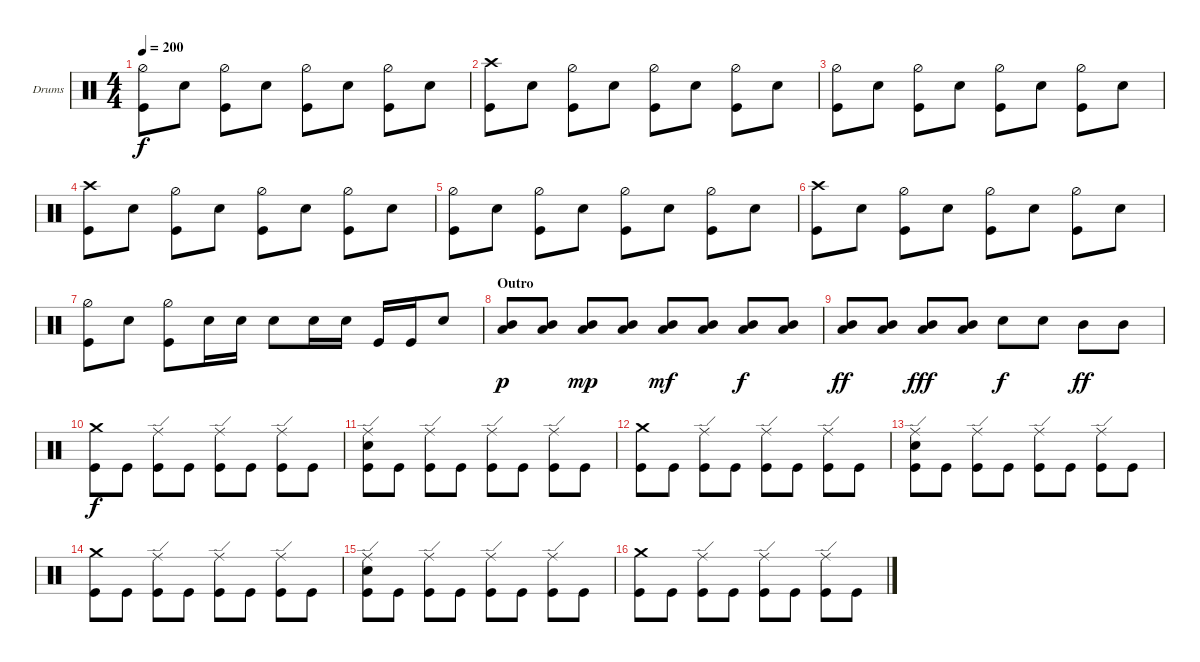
\defaultSystemsLayout 4
\bracketExtendMode groupsimilarinstruments
\firstSystemTrackNameOrientation horizontal
\otherSystemsTrackNameOrientation horizontal
\track ("Drumkit" "Drums") {instrument percussion}
\staff {score}
\articulation defaults
\ts (4 4)
\tempo 200
\clef neutral
\ks c
("Kick (hit)" "Hi-Hat (half)").8{dy f} "Snare (hit) 2".8 ("Kick (hit)" "Hi-Hat (half)").8 "Snare (hit) 2".8 ("Kick (hit)" "Hi-Hat (half)").8 "Snare (hit) 2".8 ("Kick (hit)" "Hi-Hat (half)").8 "Snare (hit) 2".8 |
("Kick (hit)" "Crash high (hit)").8 "Snare (hit) 2".8 ("Kick (hit)" "Hi-Hat (half)").8 "Snare (hit) 2".8 ("Kick (hit)" "Hi-Hat (half)").8 "Snare (hit) 2".8 ("Kick (hit)" "Hi-Hat (half)").8 "Snare (hit) 2".8 |
("Kick (hit)" "Hi-Hat (half)").8 "Snare (hit) 2".8 ("Kick (hit)" "Hi-Hat (half)").8 "Snare (hit) 2".8 ("Kick (hit)" "Hi-Hat (half)").8 "Snare (hit) 2".8 ("Kick (hit)" "Hi-Hat (half)").8 "Snare (hit) 2".8 |
("Kick (hit)" "Crash high (hit)").8 "Snare (hit) 2".8 ("Kick (hit)" "Hi-Hat (half)").8 "Snare (hit) 2".8 ("Kick (hit)" "Hi-Hat (half)").8 "Snare (hit) 2".8 ("Kick (hit)" "Hi-Hat (half)").8 "Snare (hit) 2".8 |
("Kick (hit)" "Hi-Hat (half)").8 "Snare (hit) 2".8 ("Kick (hit)" "Hi-Hat (half)").8 "Snare (hit) 2".8 ("Kick (hit)" "Hi-Hat (half)").8 "Snare (hit) 2".8 ("Kick (hit)" "Hi-Hat (half)").8 "Snare (hit) 2".8 |
("Kick (hit)" "Crash high (hit)").8 "Snare (hit) 2".8 ("Kick (hit)" "Hi-Hat (half)").8 "Snare (hit) 2".8 ("Kick (hit)" "Hi-Hat (half)").8 "Snare (hit) 2".8 ("Kick (hit)" "Hi-Hat (half)").8 "Snare (hit) 2".8 |
("Kick (hit)" "Hi-Hat (half)").8 "Snare (hit) 2".8 ("Kick (hit)" "Hi-Hat (half)").8 "Snare (hit) 2".16 "Snare (hit) 2".16 "Snare (hit) 2".8 "Snare (hit) 2".16 "Snare (hit) 2".16 "Kick (hit)".16 "Kick (hit)".16 "Snare (hit) 2".8 |
\section ("" "Outro")
("Low Tom (hit)" "Mid Tom (hit)").8{dy p} ("Low Tom (hit)" "Mid Tom (hit)").8 ("Low Tom (hit)" "Mid Tom (hit)").8{dy mp} ("Low Tom (hit)" "Mid Tom (hit)").8 ("Low Tom (hit)" "Mid Tom (hit)").8{dy mf} ("Low Tom (hit)" "Mid Tom (hit)").8 ("Low Tom (hit)" "Mid Tom (hit)").8{dy f} ("Low Tom (hit)" "Mid Tom (hit)").8 |
("Low Tom (hit)" "Mid Tom (hit)").8{dy ff} ("Low Tom (hit)" "Mid Tom (hit)").8 ("Low Tom (hit)" "Mid Tom (hit)").8{dy fff} ("Low Tom (hit)" "Mid Tom (hit)").8 "Snare (hit) 2".8{dy f} "Snare (hit) 2".8 "Mid Tom (hit)".8{dy ff} "Mid Tom (hit)".8 |
("Crash medium (hit)" "Kick (hit)").8{dy f} "Kick (hit)".8 ("Ride (edge)" "Kick (hit)").8 "Kick (hit)".8 ("Ride (edge)" "Kick (hit)").8 "Kick (hit)".8 ("Ride (edge)" "Kick (hit)").8 "Kick (hit)".8 |
("Kick (hit)" "Ride (edge)" "Snare (hit) 2").8 "Kick (hit)".8 ("Ride (edge)" "Kick (hit)").8 "Kick (hit)".8 ("Ride (edge)" "Kick (hit)").8 "Kick (hit)".8 ("Ride (edge)" "Kick (hit)").8 "Kick (hit)".8 |
("Crash medium (hit)" "Kick (hit)").8 "Kick (hit)".8 ("Ride (edge)" "Kick (hit)").8 "Kick (hit)".8 ("Ride (edge)" "Kick (hit)").8 "Kick (hit)".8 ("Ride (edge)" "Kick (hit)").8 "Kick (hit)".8 |
("Kick (hit)" "Ride (edge)" "Snare (hit) 2").8 "Kick (hit)".8 ("Ride (edge)" "Kick (hit)").8 "Kick (hit)".8 ("Ride (edge)" "Kick (hit)").8 "Kick (hit)".8 ("Ride (edge)" "Kick (hit)").8 "Kick (hit)".8 |
("Crash medium (hit)" "Kick (hit)").8 "Kick (hit)".8 ("Ride (edge)" "Kick (hit)").8 "Kick (hit)".8 ("Ride (edge)" "Kick (hit)").8 "Kick (hit)".8 ("Ride (edge)" "Kick (hit)").8 "Kick (hit)".8 |
("Kick (hit)" "Ride (edge)" "Snare (hit) 2").8 "Kick (hit)".8 ("Ride (edge)" "Kick (hit)").8 "Kick (hit)".8 ("Ride (edge)" "Kick (hit)").8 "Kick (hit)".8 ("Ride (edge)" "Kick (hit)").8 "Kick (hit)".8 |
("Crash medium (hit)" "Kick (hit)").8 "Kick (hit)".8 ("Ride (edge)" "Kick (hit)").8 "Kick (hit)".8 ("Ride (edge)" "Kick (hit)").8 "Kick (hit)".8 ("Ride (edge)" "Kick (hit)").8 "Kick (hit)".8
